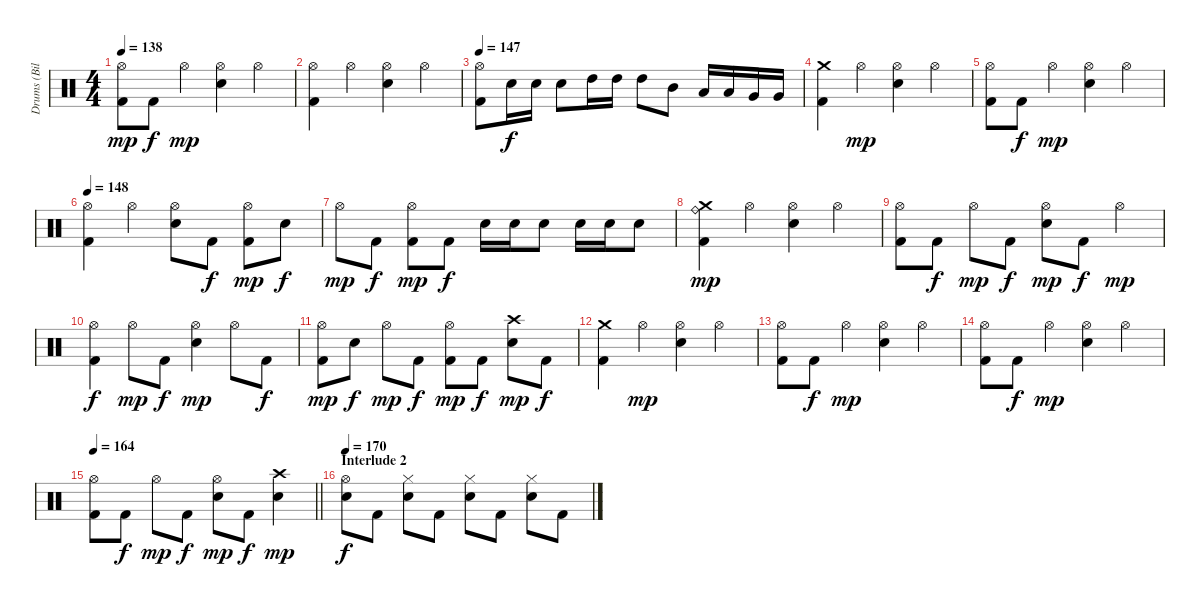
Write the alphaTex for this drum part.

\track ("Drums (Bill Andrews)" "Drums (Bil") {instrument percussion}
\staff
\articulation defaults
\ts (4 4)
\tempo 138
\clef neutral
\ks c
("Hi-Hat (open)" "Kick (hit) 2").8{dy mp} "Kick (hit) 2".8{dy f} "Hi-Hat (open)".4{dy mp} ("Hi-Hat (open)" "Electric Snare (hit)").4 "Hi-Hat (open)".4 |
("Hi-Hat (open)" "Kick (hit) 2").4 "Hi-Hat (open)".4 ("Hi-Hat (open)" "Electric Snare (hit)").4 "Hi-Hat (open)".4 |
\tempo 145
\tempo 147
("Hi-Hat (open)" "Kick (hit) 2").8 "Electric Snare (hit)".16{dy f} "Electric Snare (hit)".16 "Electric Snare (hit)".8 "High Tom (hit)".16 "High Tom (hit)".16 "High Tom (hit)".8 "Mid Tom (hit)".8 "Low Tom (hit)".16 "Low Tom (hit)".16 "Very Low Tom (hit)".16 "Very Low Tom (hit)".16 |
("Crash medium (hit)" "Kick (hit) 2").4 "Hi-Hat (open)".4{dy mp} ("Hi-Hat (open)" "Electric Snare (hit)").4 "Hi-Hat (open)".4 |
("Hi-Hat (open)" "Kick (hit) 2").8 "Kick (hit) 2".8{dy f} "Hi-Hat (open)".4{dy mp} ("Hi-Hat (open)" "Electric Snare (hit)").4 "Hi-Hat (open)".4 |
\tempo 148
("Hi-Hat (open)" "Kick (hit) 2").4 "Hi-Hat (open)".4 ("Hi-Hat (open)" "Electric Snare (hit)").8 "Kick (hit) 2".8{dy f} ("Hi-Hat (open)" "Kick (hit) 2").8{dy mp} "Electric Snare (hit)".8{dy f} |
"Hi-Hat (open)".8{dy mp} "Kick (hit) 2".8{dy f} ("Hi-Hat (open)" "Kick (hit) 2").8{dy mp} "Kick (hit) 2".8{dy f} "Electric Snare (hit)".16 "Electric Snare (hit)".16 "Electric Snare (hit)".8 "Electric Snare (hit)".16 "Electric Snare (hit)".16 "Electric Snare (hit)".8 |
("Crash medium (hit)" "Ride (bell)" "Kick (hit) 2").4{dy mp} "Hi-Hat (open)".4 ("Hi-Hat (open)" "Electric Snare (hit)").4 "Hi-Hat (open)".4 |
("Hi-Hat (open)" "Kick (hit) 2").8 "Kick (hit) 2".8{dy f} "Hi-Hat (open)".8{dy mp} "Kick (hit) 2".8{dy f} ("Hi-Hat (open)" "Electric Snare (hit)").8{dy mp} "Kick (hit) 2".8{dy f} "Hi-Hat (open)".4{dy mp} |
("Hi-Hat (open)" "Kick (hit) 2").4{dy f} "Hi-Hat (open)".8{dy mp} "Kick (hit) 2".8{dy f} ("Hi-Hat (open)" "Electric Snare (hit)").4{dy mp} "Hi-Hat (open)".8 "Kick (hit) 2".8{dy f} |
("Hi-Hat (open)" "Kick (hit) 2").8{dy mp} "Electric Snare (hit)".8{dy f} "Hi-Hat (open)".8{dy mp} "Kick (hit) 2".8{dy f} ("Hi-Hat (open)" "Kick (hit) 2").8{dy mp} "Kick (hit) 2".8{dy f} ("Crash high (hit)" "Electric Snare (hit)").8{dy mp} "Kick (hit) 2".8{dy f} |
("Crash medium (hit)" "Kick (hit) 2").4 "Hi-Hat (open)".4{dy mp} ("Hi-Hat (open)" "Electric Snare (hit)").4 "Hi-Hat (open)".4 |
("Hi-Hat (open)" "Kick (hit) 2").8 "Kick (hit) 2".8{dy f} "Hi-Hat (open)".4{dy mp} ("Hi-Hat (open)" "Electric Snare (hit)").4 "Hi-Hat (open)".4 |
("Hi-Hat (open)" "Kick (hit) 2").8 "Kick (hit) 2".8{dy f} "Hi-Hat (open)".4{dy mp} ("Hi-Hat (open)" "Electric Snare (hit)").4 "Hi-Hat (open)".4 |
\tempo 164
\barLineRight lightlight
("Hi-Hat (open)" "Kick (hit) 2").8 "Kick (hit) 2".8{dy f} "Hi-Hat (open)".8{dy mp} "Kick (hit) 2".8{dy f} ("Hi-Hat (open)" "Electric Snare (hit)").8{dy mp} "Kick (hit) 2".8{dy f} ("Crash high (hit)" "Electric Snare (hit)").4{dy mp} |
\section ("" "Interlude 2")
\tempo 173
\tempo 170
("Hi-Hat (open)" "Electric Snare (hit)").8{dy f} "Kick (hit) 2".8 ("Hi-Hat (closed)" "Electric Snare (hit)").8 "Kick (hit) 2".8 ("Hi-Hat (closed)" "Electric Snare (hit)").8 "Kick (hit) 2".8 ("Hi-Hat (closed)" "Electric Snare (hit)").8 "Kick (hit) 2".8
